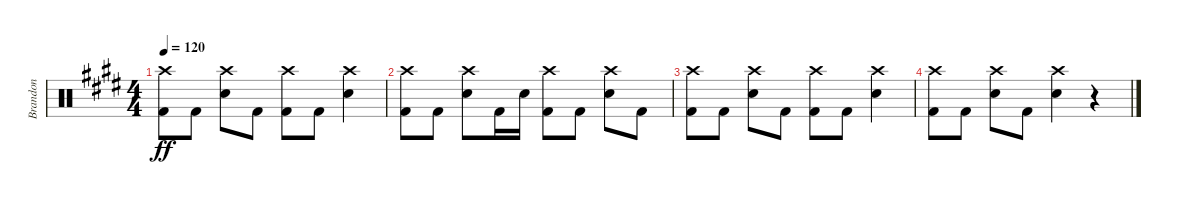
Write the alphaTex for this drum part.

\track ("Brandon" "Brandon") {instrument percussion}
\staff {score}
\articulation defaults
\ts (4 4)
\tempo 120
\clef neutral
\ks e
("Kick (hit) 2" "Crash high (hit)").8{dy ff} "Kick (hit) 2".8 ("Snare (hit) 2" "Crash high (hit)").8 "Kick (hit) 2".8 ("Kick (hit) 2" "Crash high (hit)").8 "Kick (hit) 2".8 ("Snare (hit) 2" "Crash high (hit)").4 |
("Kick (hit) 2" "Crash high (hit)").8 "Kick (hit) 2".8 ("Snare (hit) 2" "Crash high (hit)").8 "Kick (hit) 2".16 "Snare (hit) 2".16 ("Kick (hit) 2" "Crash high (hit)").8 "Kick (hit) 2".8 ("Snare (hit) 2" "Crash high (hit)").8 "Kick (hit) 2".8 |
("Kick (hit) 2" "Crash high (hit)").8 "Kick (hit) 2".8 ("Snare (hit) 2" "Crash high (hit)").8 "Kick (hit) 2".8 ("Kick (hit) 2" "Crash high (hit)").8 "Kick (hit) 2".8 ("Snare (hit) 2" "Crash high (hit)").4 |
("Kick (hit) 2" "Crash high (hit)").8 "Kick (hit) 2".8 ("Snare (hit) 2" "Crash high (hit)").8 "Kick (hit) 2".8 ("Snare (hit) 2" "Crash high (hit)").4 r.4
